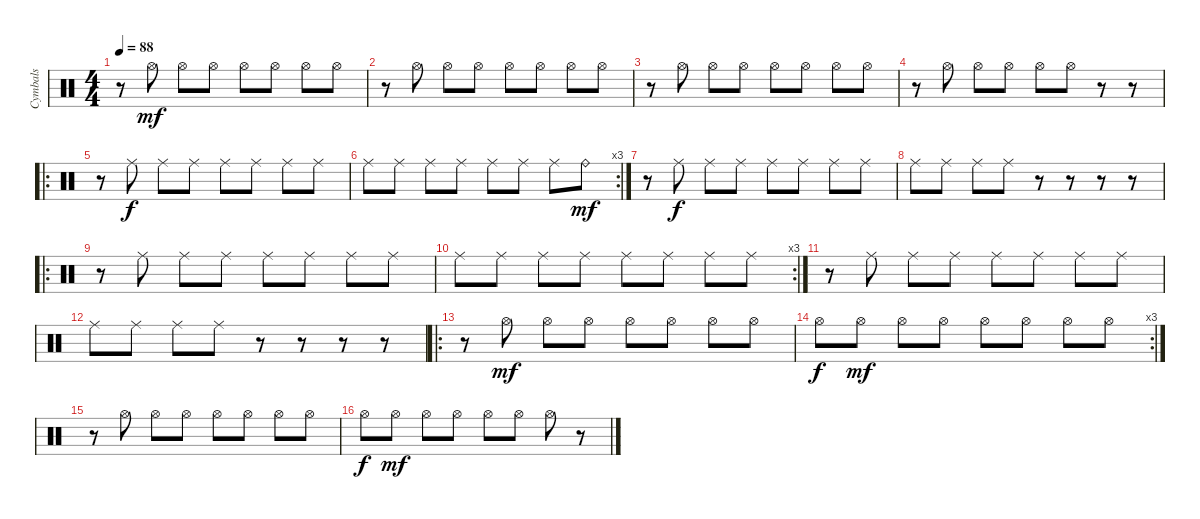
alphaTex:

\track ("Cymbals" "Cymbals") {instrument percussion}
\staff {score}
\articulation defaults
\ts (4 4)
\tempo 88
\clef neutral
\ks c
r.8{dy mf} "Hi-Hat (open)".8 "Hi-Hat (open)".8 "Hi-Hat (open)".8 "Hi-Hat (open)".8 "Hi-Hat (open)".8 "Hi-Hat (open)".8 "Hi-Hat (open)".8 |
r.8 "Hi-Hat (open)".8 "Hi-Hat (open)".8 "Hi-Hat (open)".8 "Hi-Hat (open)".8 "Hi-Hat (open)".8 "Hi-Hat (open)".8 "Hi-Hat (open)".8 |
r.8 "Hi-Hat (open)".8 "Hi-Hat (open)".8 "Hi-Hat (open)".8 "Hi-Hat (open)".8 "Hi-Hat (open)".8 "Hi-Hat (open)".8 "Hi-Hat (open)".8 |
r.8 "Hi-Hat (open)".8 "Hi-Hat (open)".8 "Hi-Hat (open)".8 "Hi-Hat (open)".8 "Hi-Hat (open)".8 r.8 r.8 |
\ro
r.8 "Ride (middle)".8{dy f} "Ride (middle)".8 "Ride (middle)".8 "Ride (middle)".8 "Ride (middle)".8 "Ride (middle)".8 "Ride (middle)".8 |
\rc 3 "Ride (middle)".8 "Ride (middle)".8 "Ride (middle)".8 "Ride (middle)".8 "Ride (middle)".8 "Ride (middle)".8 "Ride (middle)".8 "Ride (bell)".8{dy mf}
|
r.8 "Ride (middle)".8{dy f} "Ride (middle)".8 "Ride (middle)".8 "Ride (middle)".8 "Ride (middle)".8 "Ride (middle)".8 "Ride (middle)".8 |
"Ride (middle)".8 "Ride (middle)".8 "Ride (middle)".8 "Ride (middle)".8 r.8 r.8 r.8 r.8 |
\ro
r.8 "Ride (middle)".8 "Ride (middle)".8 "Ride (middle)".8 "Ride (middle)".8 "Ride (middle)".8 "Ride (middle)".8 "Ride (middle)".8 |
\rc 3 "Ride (middle)".8 "Ride (middle)".8 "Ride (middle)".8 "Ride (middle)".8 "Ride (middle)".8 "Ride (middle)".8 "Ride (middle)".8 "Ride (middle)".8
|
r.8 "Ride (middle)".8 "Ride (middle)".8 "Ride (middle)".8 "Ride (middle)".8 "Ride (middle)".8 "Ride (middle)".8 "Ride (middle)".8 |
"Ride (middle)".8 "Ride (middle)".8 "Ride (middle)".8 "Ride (middle)".8 r.8 r.8 r.8 r.8 |
\ro
r.8 "Hi-Hat (open)".8{dy mf} "Hi-Hat (open)".8 "Hi-Hat (open)".8 "Hi-Hat (open)".8 "Hi-Hat (open)".8 "Hi-Hat (open)".8 "Hi-Hat (open)".8 |
\rc 3 "Hi-Hat (open)".8{dy f} "Hi-Hat (open)".8{dy mf} "Hi-Hat (open)".8 "Hi-Hat (open)".8 "Hi-Hat (open)".8 "Hi-Hat (open)".8 "Hi-Hat (open)".8 "Hi-Hat (open)".8
|
r.8 "Hi-Hat (open)".8 "Hi-Hat (open)".8 "Hi-Hat (open)".8 "Hi-Hat (open)".8 "Hi-Hat (open)".8 "Hi-Hat (open)".8 "Hi-Hat (open)".8 |
"Hi-Hat (open)".8{dy f} "Hi-Hat (open)".8{dy mf} "Hi-Hat (open)".8 "Hi-Hat (open)".8 "Hi-Hat (open)".8 "Hi-Hat (open)".8 "Hi-Hat (open)".8 r.8
